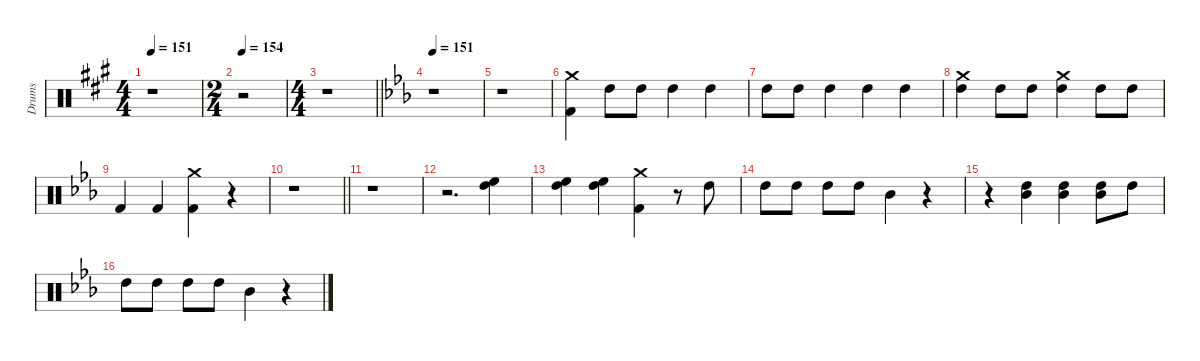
\defaultSystemsLayout 8
\hideDynamics
\bracketExtendMode nobrackets
\otherSystemsTrackNameOrientation horizontal
\track ("Drumkit" "Drums") {defaultSystemsLayout 4 instrument percussion}
\staff {score}
\articulation defaults
\ts (4 4)
\tempo 151
\clef neutral
\ks a
r.1{dy f beam Down} |
\ts (2 4)
\tempo 154
r.2{beam Down} |
\ts (4 4)
\barLineRight lightlight
r.1{beam Down} |
\tempo 151
\ks eb
r.1{beam Down} |
r.1{beam Down} |
("Crash medium (hit)"{acc forcenatural} "Kick (hit) 2"{acc forcenatural}).4{beam Down} "High Tom (hit)"{acc forcenatural}.8{beam Down} "High Tom (hit)"{acc forcenatural}.8{beam Down} "High Tom (hit)"{acc forcenatural}.4{beam Down} "High Tom (hit)"{acc forcenatural}.4{beam Down} |
"High Tom (hit)"{acc forcenatural}.8{beam Down} "High Tom (hit)"{acc forcenatural}.8{beam Down} "High Tom (hit)"{acc forcenatural}.4{beam Down} "High Tom (hit)"{acc forcenatural}.4{beam Down} "High Tom (hit)"{acc forcenatural}.4{beam Down} |
("Crash medium (hit)"{acc forcenatural} "High Tom (hit)"{acc forcenatural}).4{beam Down} "High Tom (hit)"{acc forcenatural}.8{beam Down} "High Tom (hit)"{acc forcenatural}.8{beam Down} ("Crash medium (hit)"{acc forcenatural} "High Tom (hit)"{acc forcenatural}).4{beam Down} "High Tom (hit)"{acc forcenatural}.8{beam Down} "High Tom (hit)"{acc forcenatural}.8{beam Down} |
"Kick (hit) 2"{acc forcenatural}.4{beam Up} "Kick (hit) 2"{acc forcenatural}.4{beam Up} ("Crash medium (hit)"{acc forcenatural} "Kick (hit) 2"{acc forcenatural}).4{beam Down} r.4{beam Down} |
\barLineRight lightlight
r.1{beam Down} |
r.1{beam Down} |
r.2{d beam Down} ("High Floor Tom (hit)"{acc forcenatural} "High Tom (hit)"{acc forcenatural}).4{beam Down} |
("High Floor Tom (hit)"{acc forcenatural} "High Tom (hit)"{acc forcenatural}).4{beam Down} ("High Floor Tom (hit)"{acc forcenatural} "High Tom (hit)"{acc forcenatural}).4{beam Down} ("Crash medium (hit)"{acc forcenatural} "Kick (hit) 2"{acc forcenatural}).4{beam Down} r.8{beam Down} "High Tom (hit)"{acc forcenatural}.8{beam Down} |
"High Tom (hit)"{acc forcenatural}.8{beam Down} "High Tom (hit)"{acc forcenatural}.8{beam Down} "High Tom (hit)"{acc forcenatural}.8{beam Down} "High Tom (hit)"{acc forcenatural}.8{beam Down} "Mid Tom (hit)"{acc forcenatural}.4{beam Down} r.4{beam Down} |
r.4{beam Down} ("High Tom (hit)"{acc forcenatural} "Mid Tom (hit)"{acc forcenatural}).4{beam Down} ("High Tom (hit)"{acc forcenatural} "Mid Tom (hit)"{acc forcenatural}).4{beam Down} ("High Tom (hit)"{acc forcenatural} "Mid Tom (hit)"{acc forcenatural}).8{beam Down} "High Tom (hit)"{acc forcenatural}.8{beam Down} |
"High Tom (hit)"{acc forcenatural}.8{beam Down} "High Tom (hit)"{acc forcenatural}.8{beam Down} "High Tom (hit)"{acc forcenatural}.8{beam Down} "High Tom (hit)"{acc forcenatural}.8{beam Down} "Mid Tom (hit)"{acc forcenatural}.4{beam Down} r.4{beam Down}
